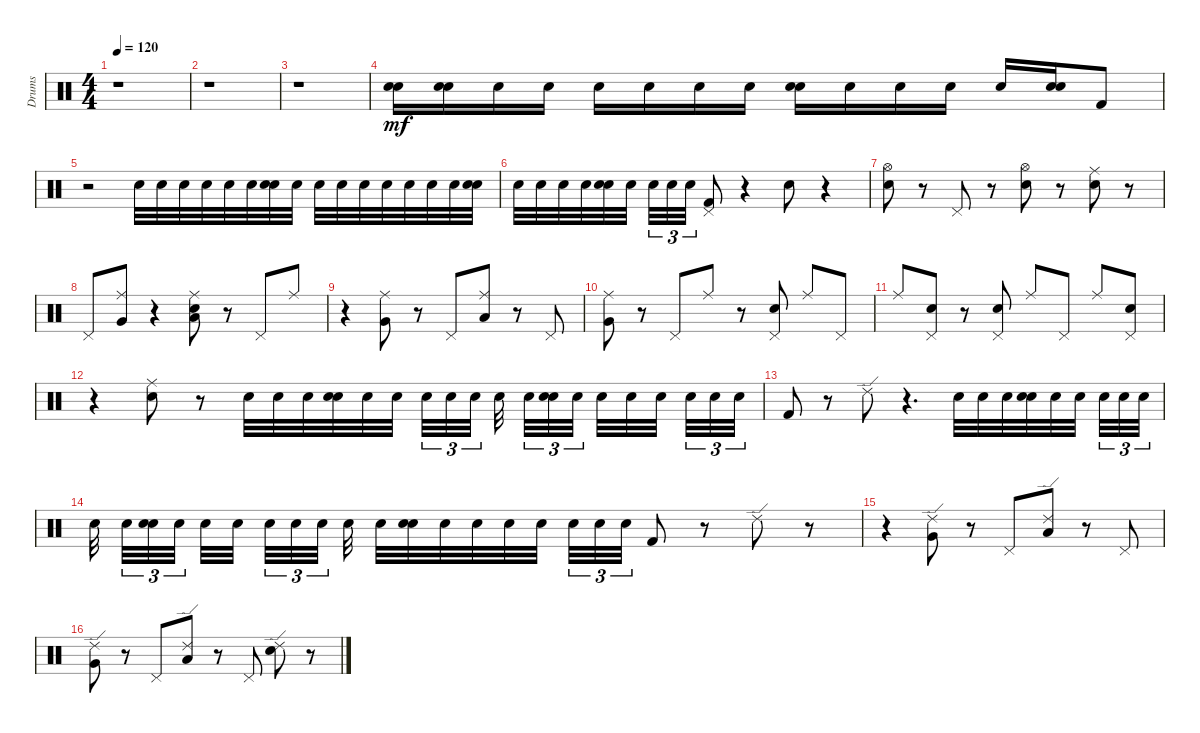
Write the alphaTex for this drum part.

\track ("Drums" "Drums") {instrument percussion}
\staff {score}
\articulation defaults
\ts (4 4)
\tempo 120
\clef neutral
\ks c
r.1{dy mf} |
r.1 |
r.1 |
("Snare (hit) 2" "Electric Snare (hit)").16{volume 14} ("Snare (hit) 2" "Electric Snare (hit)").16 "Electric Snare (hit)".16 "Snare (hit) 2".16 "Electric Snare (hit)".16 "Snare (hit) 2".16 "Electric Snare (hit)".16 "Snare (hit) 2".16 ("Snare (hit) 2" "Electric Snare (hit)").16 "Electric Snare (hit)".16 "Snare (hit) 2".16 "Electric Snare (hit)".16 "Snare (hit) 2".16 ("Snare (hit) 2" "Electric Snare (hit)").16 "Kick (hit) 2".8 |
r.2 "Electric Snare (hit)".32 "Snare (hit) 2".32 "Electric Snare (hit)".32 "Snare (hit) 2".32 "Electric Snare (hit)".32 "Snare (hit) 2".32 ("Snare (hit) 2" "Electric Snare (hit)").32 "Electric Snare (hit)".32 "Snare (hit) 2".32 "Electric Snare (hit)".32 "Snare (hit) 2".32 "Electric Snare (hit)".32 "Snare (hit) 2".32 "Electric Snare (hit)".32 "Snare (hit) 2".32 ("Snare (hit) 2" "Electric Snare (hit)").32 |
"Snare (hit) 2".32 "Electric Snare (hit)".32 "Snare (hit) 2".32 "Electric Snare (hit)".32 ("Snare (hit) 2" "Electric Snare (hit)").32 "Snare (hit) 2".32 "Electric Snare (hit)".32{tu (3 2)} "Snare (hit) 2".32{tu (3 2)} "Electric Snare (hit)".32{tu (3 2)} ("Kick (hit) 2" "Pedal Hi-Hat (hit)").8 r.4 "Electric Snare (hit)".8 r.4 |
("Electric Snare (hit)" "Hi-Hat (open)").8 r.8 "Pedal Hi-Hat (hit)".8 r.8 ("Electric Snare (hit)" "Hi-Hat (open)").8 r.8 ("Electric Snare (hit)" "Ride (middle)").8 r.8 |
"Pedal Hi-Hat (hit)".8 ("Very Low Tom (hit)" "Ride (middle)").8 r.4 ("Electric Snare (hit)" "Low Floor Tom (hit)" "Ride (middle)").8 r.8 "Pedal Hi-Hat (hit)".8 "Ride (middle)".8 |
r.4 ("Very Low Tom (hit)" "Ride (middle)").8 r.8 "Pedal Hi-Hat (hit)".8 ("Low Floor Tom (hit)" "Ride (middle)").8 r.8 "Pedal Hi-Hat (hit)".8 |
("Very Low Tom (hit)" "Ride (middle)").8 r.8 "Pedal Hi-Hat (hit)".8 "Ride (middle)".8 r.8 ("Electric Snare (hit)" "Pedal Hi-Hat (hit)").8 "Ride (middle)".8 "Pedal Hi-Hat (hit)".8 |
"Ride (middle)".8 ("Electric Snare (hit)" "Pedal Hi-Hat (hit)").8 r.8 ("Electric Snare (hit)" "Pedal Hi-Hat (hit)").8 "Ride (middle)".8 "Pedal Hi-Hat (hit)".8 "Ride (middle)".8 ("Electric Snare (hit)" "Pedal Hi-Hat (hit)").8 |
r.4 ("Electric Snare (hit)" "Ride (middle)").8 r.8 "Electric Snare (hit)".32 "Snare (hit) 2".32 "Electric Snare (hit)".32 ("Snare (hit) 2" "Electric Snare (hit)").32 "Snare (hit) 2".32 "Electric Snare (hit)".32 "Snare (hit) 2".32{tu (3 2)} "Electric Snare (hit)".32{tu (3 2)} "Snare (hit) 2".32{tu (3 2)} "Electric Snare (hit)".32 "Snare (hit) 2".32{tu (3 2)} ("Snare (hit) 2" "Electric Snare (hit)").32{tu (3 2)} "Electric Snare (hit)".32{tu (3 2)} "Snare (hit) 2".32 "Electric Snare (hit)".32 "Snare (hit) 2".32 "Electric Snare (hit)".32{tu (3 2)} "Snare (hit) 2".32{tu (3 2)} "Electric Snare (hit)".32{tu (3 2)} |
"Kick (hit) 2".8 r.8 "Ride (edge) 2".8 r.4{d} "Electric Snare (hit)".32 "Snare (hit) 2".32 "Electric Snare (hit)".32 ("Snare (hit) 2" "Electric Snare (hit)").32 "Snare (hit) 2".32 "Electric Snare (hit)".32 "Snare (hit) 2".32{tu (3 2)} "Electric Snare (hit)".32{tu (3 2)} "Snare (hit) 2".32{tu (3 2)} |
"Electric Snare (hit)".32 "Snare (hit) 2".32{tu (3 2)} ("Snare (hit) 2" "Electric Snare (hit)").32{tu (3 2)} "Electric Snare (hit)".32{tu (3 2)} "Snare (hit) 2".32 "Electric Snare (hit)".32 "Snare (hit) 2".32{tu (3 2)} "Electric Snare (hit)".32{tu (3 2)} "Snare (hit) 2".32{tu (3 2)} "Electric Snare (hit)".32 "Snare (hit) 2".32 ("Snare (hit) 2" "Electric Snare (hit)").32 "Electric Snare (hit)".32 "Snare (hit) 2".32 "Electric Snare (hit)".32 "Snare (hit) 2".32 "Electric Snare (hit)".32{tu (3 2)} "Snare (hit) 2".32{tu (3 2)} "Electric Snare (hit)".32{tu (3 2)} "Kick (hit) 2".8 r.8 "Ride (edge) 2".8 r.8 |
r.4 ("Very Low Tom (hit)" "Ride (edge) 2").8 r.8 "Pedal Hi-Hat (hit)".8 ("Low Floor Tom (hit)" "Ride (edge) 2").8 r.8 "Pedal Hi-Hat (hit)".8 |
("Very Low Tom (hit)" "Ride (edge) 2").8 r.8 "Pedal Hi-Hat (hit)".8 ("Low Floor Tom (hit)" "Ride (edge) 2").8 r.8 "Pedal Hi-Hat (hit)".8 ("Electric Snare (hit)" "Ride (edge) 2").8 r.8
